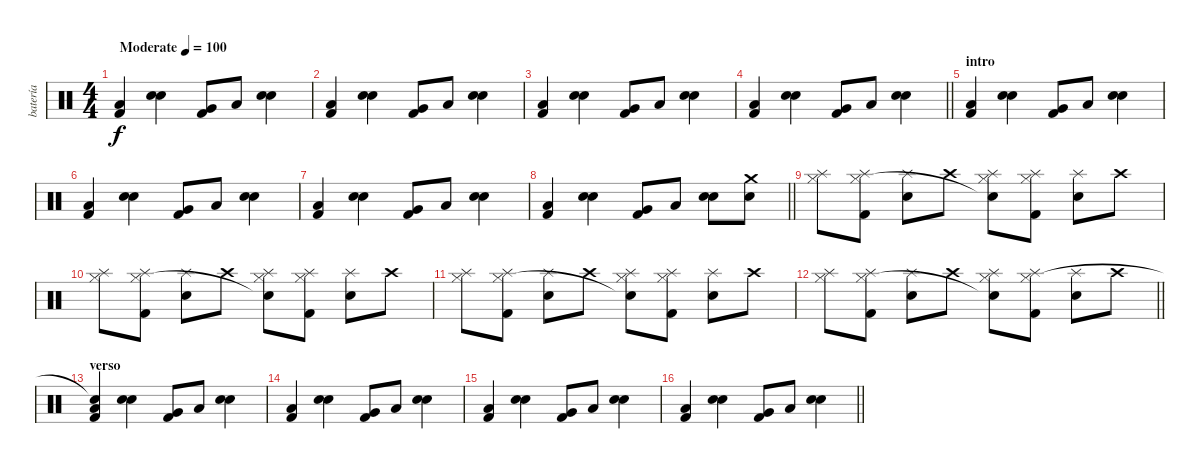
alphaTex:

\track ("batería" "batería") {instrument percussion}
\staff {score}
\articulation defaults
\ts (4 4)
\tempo (100 "Moderate")
\clef neutral
\ks c
("Kick (hit) 2" "Low Floor Tom (hit)").4{dy f} ("Snare (hit) 2" "Snare (hit) 2").4 ("Kick (hit) 2" "Very Low Tom (hit)").8 "Low Floor Tom (hit)".8 ("Snare (hit) 2" "Snare (hit) 2").4 |
("Kick (hit) 2" "Low Floor Tom (hit)").4 ("Snare (hit) 2" "Snare (hit) 2").4 ("Kick (hit) 2" "Very Low Tom (hit)").8 "Low Floor Tom (hit)".8 ("Snare (hit) 2" "Snare (hit) 2").4 |
("Kick (hit) 2" "Low Floor Tom (hit)").4 ("Snare (hit) 2" "Snare (hit) 2").4 ("Kick (hit) 2" "Very Low Tom (hit)").8 "Low Floor Tom (hit)".8 ("Snare (hit) 2" "Snare (hit) 2").4 |
\barLineRight lightlight
("Kick (hit) 2" "Low Floor Tom (hit)").4 ("Snare (hit) 2" "Snare (hit) 2").4 ("Kick (hit) 2" "Very Low Tom (hit)").8 "Low Floor Tom (hit)".8 ("Snare (hit) 2" "Snare (hit) 2").4 |
\section ("" "intro")
("Kick (hit) 2" "Low Floor Tom (hit)").4 ("Snare (hit) 2" "Snare (hit) 2").4 ("Kick (hit) 2" "Very Low Tom (hit)").8 "Low Floor Tom (hit)".8 ("Snare (hit) 2" "Snare (hit) 2").4 |
("Kick (hit) 2" "Low Floor Tom (hit)").4 ("Snare (hit) 2" "Snare (hit) 2").4 ("Kick (hit) 2" "Very Low Tom (hit)").8 "Low Floor Tom (hit)".8 ("Snare (hit) 2" "Snare (hit) 2").4 |
("Kick (hit) 2" "Low Floor Tom (hit)").4 ("Snare (hit) 2" "Snare (hit) 2").4 ("Kick (hit) 2" "Very Low Tom (hit)").8 "Low Floor Tom (hit)".8 ("Snare (hit) 2" "Snare (hit) 2").4 |
\barLineRight lightlight
("Kick (hit) 2" "Low Floor Tom (hit)").4 ("Snare (hit) 2" "Snare (hit) 2").4 ("Kick (hit) 2" "Very Low Tom (hit)").8 "Low Floor Tom (hit)".8 ("Snare (hit) 2" "Snare (hit) 2").8 ("Snare (hit) 2" "Crash medium (hit)").8 |
("Splash (hit)" "Hi-Hat (closed)").8 ("Kick (hit) 2" "Splash (hit)" "Hi-Hat (closed)").8 ("Splash (hit)" "Snare (hit) 2").8 "Crash high (hit)".8 ("Splash (hit)" "Hi-Hat (closed)" "Snare (hit)"{t}).8 ("Kick (hit) 2" "Splash (hit)" "Hi-Hat (closed)").8 ("Splash (hit)" "Snare (hit) 2").8 "Crash high (hit)".8 |
("Splash (hit)" "Hi-Hat (closed)").8 ("Kick (hit) 2" "Splash (hit)" "Hi-Hat (closed)").8 ("Splash (hit)" "Snare (hit) 2").8 "Crash high (hit)".8 ("Splash (hit)" "Hi-Hat (closed)" "Snare (hit)"{t}).8 ("Kick (hit) 2" "Splash (hit)" "Hi-Hat (closed)").8 ("Splash (hit)" "Snare (hit) 2").8 "Crash high (hit)".8 |
("Splash (hit)" "Hi-Hat (closed)").8 ("Kick (hit) 2" "Splash (hit)" "Hi-Hat (closed)").8 ("Splash (hit)" "Snare (hit) 2").8 "Crash high (hit)".8 ("Splash (hit)" "Hi-Hat (closed)" "Snare (hit)"{t}).8 ("Kick (hit) 2" "Splash (hit)" "Hi-Hat (closed)").8 ("Splash (hit)" "Snare (hit) 2").8 "Crash high (hit)".8 |
\barLineRight lightlight
("Splash (hit)" "Hi-Hat (closed)").8 ("Kick (hit) 2" "Splash (hit)" "Hi-Hat (closed)").8 ("Splash (hit)" "Snare (hit) 2").8 "Crash high (hit)".8 ("Splash (hit)" "Hi-Hat (closed)" "Snare (hit)"{t}).8 ("Kick (hit) 2" "Splash (hit)" "Hi-Hat (closed)").8 ("Splash (hit)" "Snare (hit) 2").8 "Crash high (hit)".8 |
\section ("" "verso")
("Kick (hit) 2" "Low Floor Tom (hit)" "Snare (hit)"{t}).4 ("Snare (hit) 2" "Snare (hit) 2").4 ("Kick (hit) 2" "Very Low Tom (hit)").8 "Low Floor Tom (hit)".8 ("Snare (hit) 2" "Snare (hit) 2").4 |
("Kick (hit) 2" "Low Floor Tom (hit)").4 ("Snare (hit) 2" "Snare (hit) 2").4 ("Kick (hit) 2" "Very Low Tom (hit)").8 "Low Floor Tom (hit)".8 ("Snare (hit) 2" "Snare (hit) 2").4 |
("Kick (hit) 2" "Low Floor Tom (hit)").4 ("Snare (hit) 2" "Snare (hit) 2").4 ("Kick (hit) 2" "Very Low Tom (hit)").8 "Low Floor Tom (hit)".8 ("Snare (hit) 2" "Snare (hit) 2").4 |
\barLineRight lightlight
("Kick (hit) 2" "Low Floor Tom (hit)").4 ("Snare (hit) 2" "Snare (hit) 2").4 ("Kick (hit) 2" "Very Low Tom (hit)").8 "Low Floor Tom (hit)".8 ("Snare (hit) 2" "Snare (hit) 2").4
